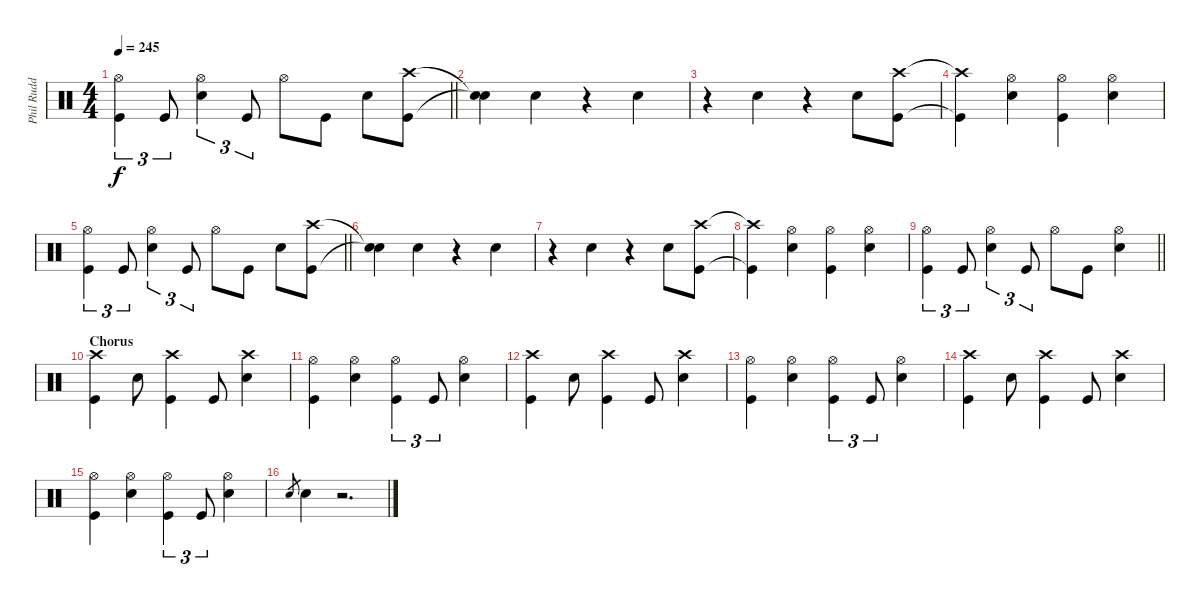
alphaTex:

\track ("Phil Rudd" "Phil Rudd") {instrument percussion}
\staff {score}
\articulation defaults
\ts (4 4)
\tempo 245
\clef neutral
\barLineRight lightlight
\ks c
("Hi-Hat (open)" "Kick (hit)").4{tu (3 2) dy f} "Kick (hit)".8{tu (3 2)} ("Hi-Hat (open)" "Snare (hit) 2").4{tu (3 2)} "Kick (hit)".8{tu (3 2)} "Hi-Hat (open)".8 "Kick (hit)".8 "Snare (hit) 2".8 ("Crash high (hit)" "Kick (hit)").8 |
("Snare (hit)"{t} "Snare (hit)"{t}).4 "Snare (hit) 2".4 r.4 "Snare (hit) 2".4 |
r.4 "Snare (hit) 2".4 r.4 "Snare (hit) 2".8 ("Crash high (hit)" "Kick (hit)").8 |
("Crash high (hit)"{t} "Kick (hit)"{t}).4 ("Hi-Hat (open)" "Snare (hit) 2").4 ("Hi-Hat (open)" "Kick (hit)").4 ("Hi-Hat (open)" "Snare (hit) 2").4 |
\barLineRight lightlight
("Hi-Hat (open)" "Kick (hit)").4{tu (3 2)} "Kick (hit)".8{tu (3 2)} ("Hi-Hat (open)" "Snare (hit) 2").4{tu (3 2)} "Kick (hit)".8{tu (3 2)} "Hi-Hat (open)".8 "Kick (hit)".8 "Snare (hit) 2".8 ("Crash high (hit)" "Kick (hit)").8 |
("Snare (hit)"{t} "Snare (hit)"{t}).4 "Snare (hit) 2".4 r.4 "Snare (hit) 2".4 |
r.4 "Snare (hit) 2".4 r.4 "Snare (hit) 2".8 ("Crash high (hit)" "Kick (hit)").8 |
("Crash high (hit)"{t} "Kick (hit)"{t}).4 ("Hi-Hat (open)" "Snare (hit) 2").4 ("Hi-Hat (open)" "Kick (hit)").4 ("Hi-Hat (open)" "Snare (hit) 2").4 |
\barLineRight lightlight
("Hi-Hat (open)" "Kick (hit)").4{tu (3 2)} "Kick (hit)".8{tu (3 2)} ("Hi-Hat (open)" "Snare (hit) 2").4{tu (3 2)} "Kick (hit)".8{tu (3 2)} "Hi-Hat (open)".8 "Kick (hit)".8 ("Hi-Hat (open)" "Snare (hit) 2").4 |
\section ("" "Chorus")
("Crash high (hit)" "Kick (hit)").4 "Snare (hit) 2".8 ("Crash high (hit)" "Kick (hit)").4 "Kick (hit)".8 ("Crash high (hit)" "Snare (hit) 2").4 |
("Hi-Hat (open)" "Kick (hit)").4 ("Hi-Hat (open)" "Snare (hit) 2").4 ("Hi-Hat (open)" "Kick (hit)").4{tu (3 2)} "Kick (hit)".8{tu (3 2)} ("Hi-Hat (open)" "Snare (hit) 2").4 |
("Crash high (hit)" "Kick (hit)").4 "Snare (hit) 2".8 ("Crash high (hit)" "Kick (hit)").4 "Kick (hit)".8 ("Crash high (hit)" "Snare (hit) 2").4 |
("Hi-Hat (open)" "Kick (hit)").4 ("Hi-Hat (open)" "Snare (hit) 2").4 ("Hi-Hat (open)" "Kick (hit)").4{tu (3 2)} "Kick (hit)".8{tu (3 2)} ("Hi-Hat (open)" "Snare (hit) 2").4 |
("Crash high (hit)" "Kick (hit)").4 "Snare (hit) 2".8 ("Crash high (hit)" "Kick (hit)").4 "Kick (hit)".8 ("Crash high (hit)" "Snare (hit) 2").4 |
("Hi-Hat (open)" "Kick (hit)").4 ("Hi-Hat (open)" "Snare (hit) 2").4 ("Hi-Hat (open)" "Kick (hit)").4{tu (3 2)} "Kick (hit)".8{tu (3 2)} ("Hi-Hat (open)" "Snare (hit) 2").4 |
"Snare (hit) 2".8{gr} "Snare (hit) 2".4 r.2{d}
